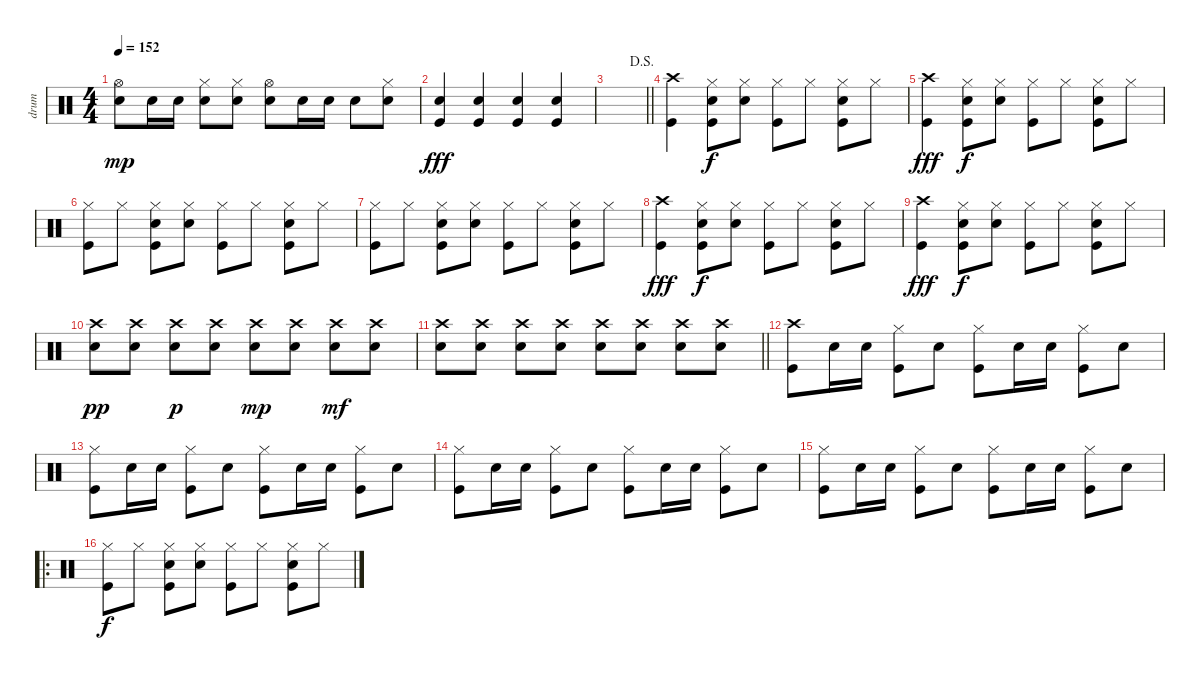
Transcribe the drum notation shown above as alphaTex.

\track ("drum" "drum") {instrument percussion}
\staff {score}
\articulation defaults
\ts (4 4)
\tempo 152
\clef neutral
\ks c
("Hi-Hat (open)" "Snare (hit) 2").8{dy mp} "Snare (hit) 2".16 "Snare (hit) 2".16 ("Hi-Hat (closed)" "Snare (hit) 2").8 ("Hi-Hat (closed)" "Snare (hit) 2").8 ("Hi-Hat (open)" "Snare (hit) 2").8 "Snare (hit) 2".16 "Snare (hit) 2".16 "Snare (hit) 2".8 ("Hi-Hat (closed)" "Snare (hit) 2").8 |
("Snare (hit) 2" "Kick (hit)").4{dy fff} ("Snare (hit) 2" "Kick (hit)").4 ("Snare (hit) 2" "Kick (hit)").4 ("Snare (hit) 2" "Kick (hit)").4 |
\jump dalsegno
\barLineRight lightlight
|
("Crash high (hit)" "Kick (hit)").4 ("Hi-Hat (closed)" "Snare (hit) 2" "Kick (hit)").8{dy f} ("Hi-Hat (closed)" "Snare (hit) 2").8 ("Hi-Hat (closed)" "Kick (hit)").8 "Hi-Hat (closed)".8 ("Hi-Hat (closed)" "Snare (hit) 2" "Kick (hit)").8 "Hi-Hat (closed)".8 |
("Crash high (hit)" "Kick (hit)").4{dy fff} ("Hi-Hat (closed)" "Snare (hit) 2" "Kick (hit)").8{dy f} ("Hi-Hat (closed)" "Snare (hit) 2").8 ("Hi-Hat (closed)" "Kick (hit)").8 "Hi-Hat (closed)".8 ("Hi-Hat (closed)" "Snare (hit) 2" "Kick (hit)").8 "Hi-Hat (closed)".8 |
("Hi-Hat (closed)" "Kick (hit)").8 "Hi-Hat (closed)".8 ("Hi-Hat (closed)" "Snare (hit) 2" "Kick (hit)").8 ("Hi-Hat (closed)" "Snare (hit) 2").8 ("Hi-Hat (closed)" "Kick (hit)").8 "Hi-Hat (closed)".8 ("Hi-Hat (closed)" "Snare (hit) 2" "Kick (hit)").8 "Hi-Hat (closed)".8 |
("Hi-Hat (closed)" "Kick (hit)").8 "Hi-Hat (closed)".8 ("Hi-Hat (closed)" "Snare (hit) 2" "Kick (hit)").8 ("Hi-Hat (closed)" "Snare (hit) 2").8 ("Hi-Hat (closed)" "Kick (hit)").8 "Hi-Hat (closed)".8 ("Hi-Hat (closed)" "Snare (hit) 2" "Kick (hit)").8 "Hi-Hat (closed)".8 |
("Crash high (hit)" "Kick (hit)").4{dy fff} ("Hi-Hat (closed)" "Snare (hit) 2" "Kick (hit)").8{dy f} ("Hi-Hat (closed)" "Snare (hit) 2").8 ("Hi-Hat (closed)" "Kick (hit)").8 "Hi-Hat (closed)".8 ("Hi-Hat (closed)" "Snare (hit) 2" "Kick (hit)").8 "Hi-Hat (closed)".8 |
("Crash high (hit)" "Kick (hit)").4{dy fff} ("Hi-Hat (closed)" "Snare (hit) 2" "Kick (hit)").8{dy f} ("Hi-Hat (closed)" "Snare (hit) 2").8 ("Hi-Hat (closed)" "Kick (hit)").8 "Hi-Hat (closed)".8 ("Hi-Hat (closed)" "Snare (hit) 2" "Kick (hit)").8 "Hi-Hat (closed)".8 |
("Crash high (hit)" "Snare (hit) 2").8{dy pp} ("Crash high (hit)" "Snare (hit) 2").8 ("Crash high (hit)" "Snare (hit) 2").8{dy p} ("Crash high (hit)" "Snare (hit) 2").8 ("Crash high (hit)" "Snare (hit) 2").8{dy mp} ("Crash high (hit)" "Snare (hit) 2").8 ("Crash high (hit)" "Snare (hit) 2").8{dy mf} ("Crash high (hit)" "Snare (hit) 2").8 |
\barLineRight lightlight
("Crash high (hit)" "Snare (hit) 2").8 ("Crash high (hit)" "Snare (hit) 2").8 ("Crash high (hit)" "Snare (hit) 2").8 ("Crash high (hit)" "Snare (hit) 2").8 ("Crash high (hit)" "Snare (hit) 2").8 ("Crash high (hit)" "Snare (hit) 2").8 ("Crash high (hit)" "Snare (hit) 2").8 ("Crash high (hit)" "Snare (hit) 2").8 |
("Crash high (hit)" "Kick (hit)").8 "Snare (hit) 2".16 "Snare (hit) 2".16 ("Hi-Hat (closed)" "Kick (hit)").8 "Snare (hit) 2".8 ("Hi-Hat (closed)" "Kick (hit)").8 "Snare (hit) 2".16 "Snare (hit) 2".16 ("Hi-Hat (closed)" "Kick (hit)").8 "Snare (hit) 2".8 |
("Hi-Hat (closed)" "Kick (hit)").8 "Snare (hit) 2".16 "Snare (hit) 2".16 ("Hi-Hat (closed)" "Kick (hit)").8 "Snare (hit) 2".8 ("Hi-Hat (closed)" "Kick (hit)").8 "Snare (hit) 2".16 "Snare (hit) 2".16 ("Hi-Hat (closed)" "Kick (hit)").8 "Snare (hit) 2".8 |
("Hi-Hat (closed)" "Kick (hit)").8 "Snare (hit) 2".16 "Snare (hit) 2".16 ("Hi-Hat (closed)" "Kick (hit)").8 "Snare (hit) 2".8 ("Hi-Hat (closed)" "Kick (hit)").8 "Snare (hit) 2".16 "Snare (hit) 2".16 ("Hi-Hat (closed)" "Kick (hit)").8 "Snare (hit) 2".8 |
("Hi-Hat (closed)" "Kick (hit)").8 "Snare (hit) 2".16 "Snare (hit) 2".16 ("Hi-Hat (closed)" "Kick (hit)").8 "Snare (hit) 2".8 ("Hi-Hat (closed)" "Kick (hit)").8 "Snare (hit) 2".16 "Snare (hit) 2".16 ("Hi-Hat (closed)" "Kick (hit)").8 "Snare (hit) 2".8 |
\ro
("Hi-Hat (closed)" "Kick (hit)").8{dy f} "Hi-Hat (closed)".8 ("Hi-Hat (closed)" "Snare (hit) 2" "Kick (hit)").8 ("Hi-Hat (closed)" "Snare (hit) 2").8 ("Hi-Hat (closed)" "Kick (hit)").8 "Hi-Hat (closed)".8 ("Hi-Hat (closed)" "Snare (hit) 2" "Kick (hit)").8 "Hi-Hat (closed)".8
